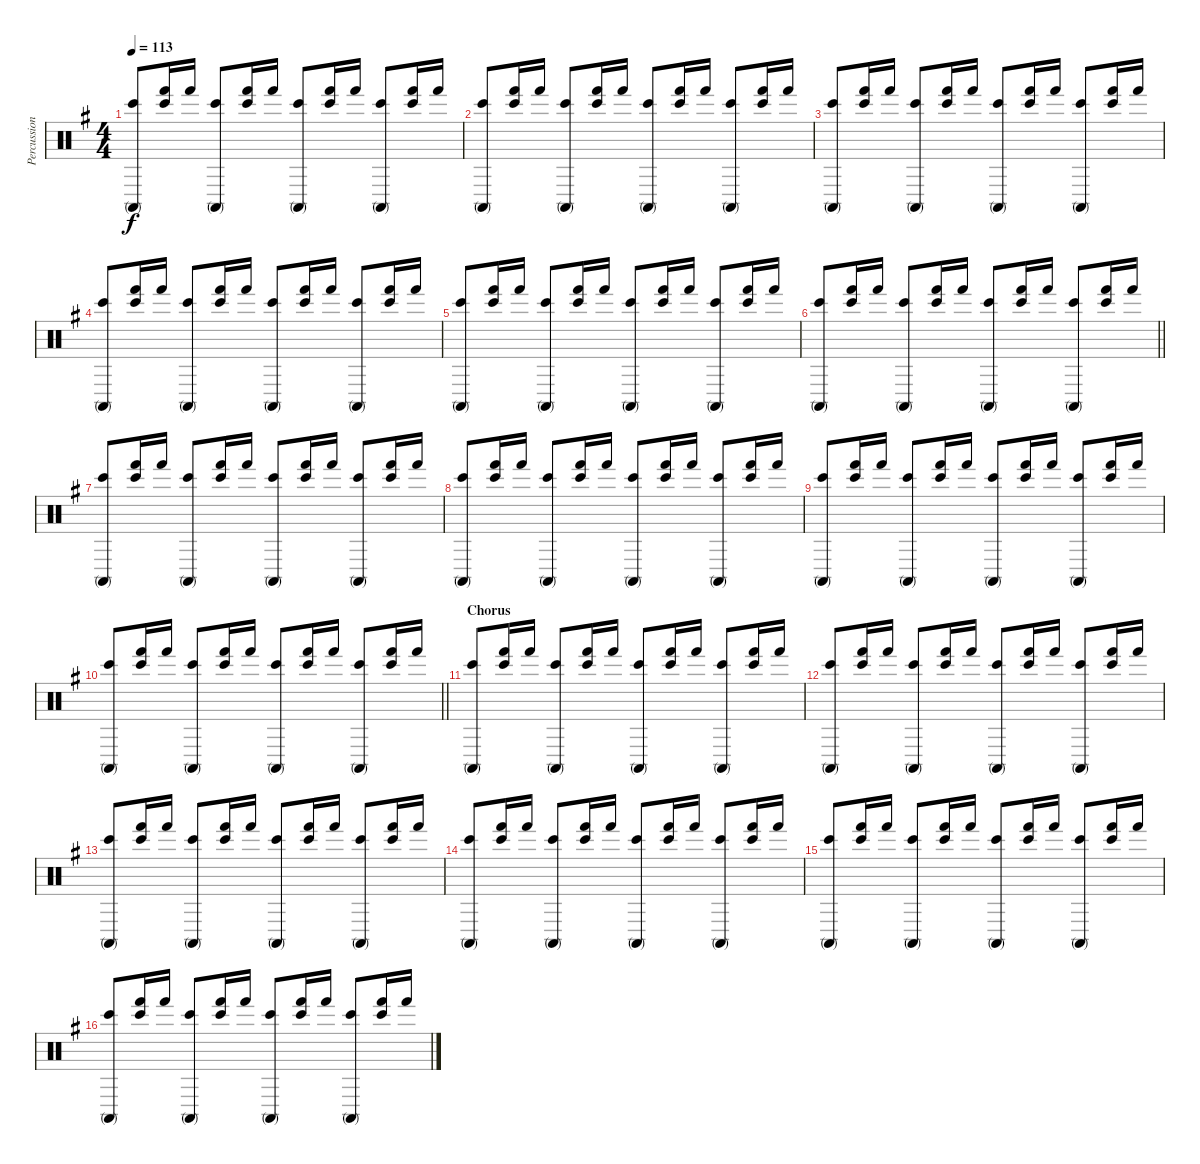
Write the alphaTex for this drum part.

\track ("Percussion" "Percussion") {instrument percussion}
\staff {score}
\articulation defaults
\ts (4 4)
\tempo 113
\clef neutral
\ks g
("Bongo High (hit)" "Conga high (mute)").8{dy f} ("Bongo High (hit)" "Hand (hit)").16 "Hand (hit)".16 ("Bongo High (hit)" "Conga high (mute)").8 ("Bongo High (hit)" "Hand (hit)").16 "Hand (hit)".16 ("Bongo High (hit)" "Conga high (mute)").8 ("Bongo High (hit)" "Hand (hit)").16 "Hand (hit)".16 ("Bongo High (hit)" "Conga high (mute)").8 ("Bongo High (hit)" "Hand (hit)").16 "Hand (hit)".16 |
("Bongo High (hit)" "Conga high (mute)").8 ("Bongo High (hit)" "Hand (hit)").16 "Hand (hit)".16 ("Bongo High (hit)" "Conga high (mute)").8 ("Bongo High (hit)" "Hand (hit)").16 "Hand (hit)".16 ("Bongo High (hit)" "Conga high (mute)").8 ("Bongo High (hit)" "Hand (hit)").16 "Hand (hit)".16 ("Bongo High (hit)" "Conga high (mute)").8 ("Bongo High (hit)" "Hand (hit)").16 "Hand (hit)".16 |
("Bongo High (hit)" "Conga high (mute)").8 ("Bongo High (hit)" "Hand (hit)").16 "Hand (hit)".16 ("Bongo High (hit)" "Conga high (mute)").8 ("Bongo High (hit)" "Hand (hit)").16 "Hand (hit)".16 ("Bongo High (hit)" "Conga high (mute)").8 ("Bongo High (hit)" "Hand (hit)").16 "Hand (hit)".16 ("Bongo High (hit)" "Conga high (mute)").8 ("Bongo High (hit)" "Hand (hit)").16 "Hand (hit)".16 |
("Bongo High (hit)" "Conga high (mute)").8 ("Bongo High (hit)" "Hand (hit)").16 "Hand (hit)".16 ("Bongo High (hit)" "Conga high (mute)").8 ("Bongo High (hit)" "Hand (hit)").16 "Hand (hit)".16 ("Bongo High (hit)" "Conga high (mute)").8 ("Bongo High (hit)" "Hand (hit)").16 "Hand (hit)".16 ("Bongo High (hit)" "Conga high (mute)").8 ("Bongo High (hit)" "Hand (hit)").16 "Hand (hit)".16 |
("Bongo High (hit)" "Conga high (mute)").8 ("Bongo High (hit)" "Hand (hit)").16 "Hand (hit)".16 ("Bongo High (hit)" "Conga high (mute)").8 ("Bongo High (hit)" "Hand (hit)").16 "Hand (hit)".16 ("Bongo High (hit)" "Conga high (mute)").8 ("Bongo High (hit)" "Hand (hit)").16 "Hand (hit)".16 ("Bongo High (hit)" "Conga high (mute)").8 ("Bongo High (hit)" "Hand (hit)").16 "Hand (hit)".16 |
\barLineRight lightlight
("Bongo High (hit)" "Conga high (mute)").8 ("Bongo High (hit)" "Hand (hit)").16 "Hand (hit)".16 ("Bongo High (hit)" "Conga high (mute)").8 ("Bongo High (hit)" "Hand (hit)").16 "Hand (hit)".16 ("Bongo High (hit)" "Conga high (mute)").8 ("Bongo High (hit)" "Hand (hit)").16 "Hand (hit)".16 ("Bongo High (hit)" "Conga high (mute)").8 ("Bongo High (hit)" "Hand (hit)").16 "Hand (hit)".16 |
("Bongo High (hit)" "Conga high (mute)").8 ("Bongo High (hit)" "Hand (hit)").16 "Hand (hit)".16 ("Bongo High (hit)" "Conga high (mute)").8 ("Bongo High (hit)" "Hand (hit)").16 "Hand (hit)".16 ("Bongo High (hit)" "Conga high (mute)").8 ("Bongo High (hit)" "Hand (hit)").16 "Hand (hit)".16 ("Bongo High (hit)" "Conga high (mute)").8 ("Bongo High (hit)" "Hand (hit)").16 "Hand (hit)".16 |
("Bongo High (hit)" "Conga high (mute)").8 ("Bongo High (hit)" "Hand (hit)").16 "Hand (hit)".16 ("Bongo High (hit)" "Conga high (mute)").8 ("Bongo High (hit)" "Hand (hit)").16 "Hand (hit)".16 ("Bongo High (hit)" "Conga high (mute)").8 ("Bongo High (hit)" "Hand (hit)").16 "Hand (hit)".16 ("Bongo High (hit)" "Conga high (mute)").8 ("Bongo High (hit)" "Hand (hit)").16 "Hand (hit)".16 |
("Bongo High (hit)" "Conga high (mute)").8 ("Bongo High (hit)" "Hand (hit)").16 "Hand (hit)".16 ("Bongo High (hit)" "Conga high (mute)").8 ("Bongo High (hit)" "Hand (hit)").16 "Hand (hit)".16 ("Bongo High (hit)" "Conga high (mute)").8 ("Bongo High (hit)" "Hand (hit)").16 "Hand (hit)".16 ("Bongo High (hit)" "Conga high (mute)").8 ("Bongo High (hit)" "Hand (hit)").16 "Hand (hit)".16 |
\barLineRight lightlight
("Bongo High (hit)" "Conga high (mute)").8 ("Bongo High (hit)" "Hand (hit)").16 "Hand (hit)".16 ("Bongo High (hit)" "Conga high (mute)").8 ("Bongo High (hit)" "Hand (hit)").16 "Hand (hit)".16 ("Bongo High (hit)" "Conga high (mute)").8 ("Bongo High (hit)" "Hand (hit)").16 "Hand (hit)".16 ("Bongo High (hit)" "Conga high (mute)").8 ("Bongo High (hit)" "Hand (hit)").16 "Hand (hit)".16 |
\section ("" "Chorus")
("Bongo High (hit)" "Conga high (mute)").8 ("Bongo High (hit)" "Hand (hit)").16 "Hand (hit)".16 ("Bongo High (hit)" "Conga high (mute)").8 ("Bongo High (hit)" "Hand (hit)").16 "Hand (hit)".16 ("Bongo High (hit)" "Conga high (mute)").8 ("Bongo High (hit)" "Hand (hit)").16 "Hand (hit)".16 ("Bongo High (hit)" "Conga high (mute)").8 ("Bongo High (hit)" "Hand (hit)").16 "Hand (hit)".16 |
("Bongo High (hit)" "Conga high (mute)").8 ("Bongo High (hit)" "Hand (hit)").16 "Hand (hit)".16 ("Bongo High (hit)" "Conga high (mute)").8 ("Bongo High (hit)" "Hand (hit)").16 "Hand (hit)".16 ("Bongo High (hit)" "Conga high (mute)").8 ("Bongo High (hit)" "Hand (hit)").16 "Hand (hit)".16 ("Bongo High (hit)" "Conga high (mute)").8 ("Bongo High (hit)" "Hand (hit)").16 "Hand (hit)".16 |
("Bongo High (hit)" "Conga high (mute)").8 ("Bongo High (hit)" "Hand (hit)").16 "Hand (hit)".16 ("Bongo High (hit)" "Conga high (mute)").8 ("Bongo High (hit)" "Hand (hit)").16 "Hand (hit)".16 ("Bongo High (hit)" "Conga high (mute)").8 ("Bongo High (hit)" "Hand (hit)").16 "Hand (hit)".16 ("Bongo High (hit)" "Conga high (mute)").8 ("Bongo High (hit)" "Hand (hit)").16 "Hand (hit)".16 |
("Bongo High (hit)" "Conga high (mute)").8 ("Bongo High (hit)" "Hand (hit)").16 "Hand (hit)".16 ("Bongo High (hit)" "Conga high (mute)").8 ("Bongo High (hit)" "Hand (hit)").16 "Hand (hit)".16 ("Bongo High (hit)" "Conga high (mute)").8 ("Bongo High (hit)" "Hand (hit)").16 "Hand (hit)".16 ("Bongo High (hit)" "Conga high (mute)").8 ("Bongo High (hit)" "Hand (hit)").16 "Hand (hit)".16 |
("Bongo High (hit)" "Conga high (mute)").8 ("Bongo High (hit)" "Hand (hit)").16 "Hand (hit)".16 ("Bongo High (hit)" "Conga high (mute)").8 ("Bongo High (hit)" "Hand (hit)").16 "Hand (hit)".16 ("Bongo High (hit)" "Conga high (mute)").8 ("Bongo High (hit)" "Hand (hit)").16 "Hand (hit)".16 ("Bongo High (hit)" "Conga high (mute)").8 ("Bongo High (hit)" "Hand (hit)").16 "Hand (hit)".16 |
("Bongo High (hit)" "Conga high (mute)").8 ("Bongo High (hit)" "Hand (hit)").16 "Hand (hit)".16 ("Bongo High (hit)" "Conga high (mute)").8 ("Bongo High (hit)" "Hand (hit)").16 "Hand (hit)".16 ("Bongo High (hit)" "Conga high (mute)").8 ("Bongo High (hit)" "Hand (hit)").16 "Hand (hit)".16 ("Bongo High (hit)" "Conga high (mute)").8 ("Bongo High (hit)" "Hand (hit)").16 "Hand (hit)".16
